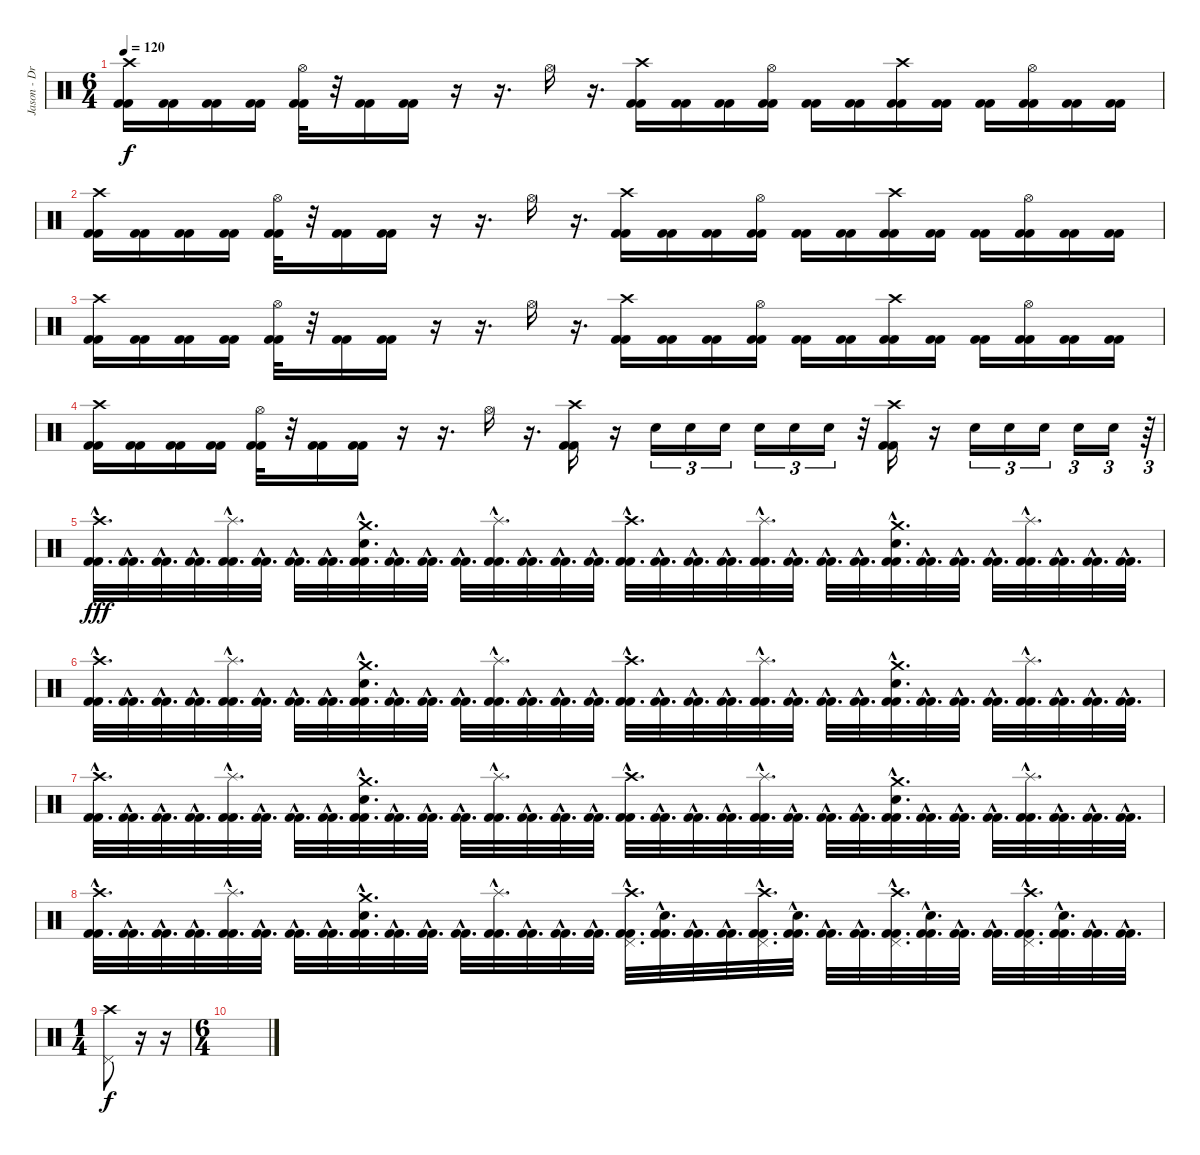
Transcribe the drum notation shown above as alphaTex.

\track ("Jason - Drums" "Jason - Dr") {instrument percussion}
\staff {score}
\articulation defaults
\ts (6 4)
\tempo 120
\clef neutral
\ks c
("Crash high (hit)" "Kick (hit) 2" "Kick (hit) 2").16{dy f} ("Kick (hit) 2" "Kick (hit) 2").16 ("Kick (hit) 2" "Kick (hit) 2").16 ("Kick (hit) 2" "Kick (hit) 2").16 ("Hi-Hat (open)" "Kick (hit) 2" "Kick (hit) 2").32 r.32 ("Kick (hit) 2" "Kick (hit) 2").16 ("Kick (hit) 2" "Kick (hit) 2").16 r.16 r.16{d} "Hi-Hat (open)".16 r.16{d} ("Crash high (hit)" "Kick (hit) 2" "Kick (hit) 2").16 ("Kick (hit) 2" "Kick (hit) 2").16 ("Kick (hit) 2" "Kick (hit) 2").16 ("Hi-Hat (open)" "Kick (hit) 2" "Kick (hit) 2").16 ("Kick (hit) 2" "Kick (hit) 2").16 ("Kick (hit) 2" "Kick (hit) 2").16 ("Crash high (hit)" "Kick (hit) 2" "Kick (hit) 2").16 ("Kick (hit) 2" "Kick (hit) 2").16 ("Kick (hit) 2" "Kick (hit) 2").16 ("Hi-Hat (open)" "Kick (hit) 2" "Kick (hit) 2").16 ("Kick (hit) 2" "Kick (hit) 2").16 ("Kick (hit) 2" "Kick (hit) 2").16 |
("Crash high (hit)" "Kick (hit) 2" "Kick (hit) 2").16 ("Kick (hit) 2" "Kick (hit) 2").16 ("Kick (hit) 2" "Kick (hit) 2").16 ("Kick (hit) 2" "Kick (hit) 2").16 ("Hi-Hat (open)" "Kick (hit) 2" "Kick (hit) 2").32 r.32 ("Kick (hit) 2" "Kick (hit) 2").16 ("Kick (hit) 2" "Kick (hit) 2").16 r.16 r.16{d} "Hi-Hat (open)".16 r.16{d} ("Crash high (hit)" "Kick (hit) 2" "Kick (hit) 2").16 ("Kick (hit) 2" "Kick (hit) 2").16 ("Kick (hit) 2" "Kick (hit) 2").16 ("Hi-Hat (open)" "Kick (hit) 2" "Kick (hit) 2").16 ("Kick (hit) 2" "Kick (hit) 2").16 ("Kick (hit) 2" "Kick (hit) 2").16 ("Crash high (hit)" "Kick (hit) 2" "Kick (hit) 2").16 ("Kick (hit) 2" "Kick (hit) 2").16 ("Kick (hit) 2" "Kick (hit) 2").16 ("Hi-Hat (open)" "Kick (hit) 2" "Kick (hit) 2").16 ("Kick (hit) 2" "Kick (hit) 2").16 ("Kick (hit) 2" "Kick (hit) 2").16 |
("Crash high (hit)" "Kick (hit) 2" "Kick (hit) 2").16 ("Kick (hit) 2" "Kick (hit) 2").16 ("Kick (hit) 2" "Kick (hit) 2").16 ("Kick (hit) 2" "Kick (hit) 2").16 ("Hi-Hat (open)" "Kick (hit) 2" "Kick (hit) 2").32 r.32 ("Kick (hit) 2" "Kick (hit) 2").16 ("Kick (hit) 2" "Kick (hit) 2").16 r.16 r.16{d} "Hi-Hat (open)".16 r.16{d} ("Crash high (hit)" "Kick (hit) 2" "Kick (hit) 2").16 ("Kick (hit) 2" "Kick (hit) 2").16 ("Kick (hit) 2" "Kick (hit) 2").16 ("Hi-Hat (open)" "Kick (hit) 2" "Kick (hit) 2").16 ("Kick (hit) 2" "Kick (hit) 2").16 ("Kick (hit) 2" "Kick (hit) 2").16 ("Crash high (hit)" "Kick (hit) 2" "Kick (hit) 2").16 ("Kick (hit) 2" "Kick (hit) 2").16 ("Kick (hit) 2" "Kick (hit) 2").16 ("Hi-Hat (open)" "Kick (hit) 2" "Kick (hit) 2").16 ("Kick (hit) 2" "Kick (hit) 2").16 ("Kick (hit) 2" "Kick (hit) 2").16 |
("Crash high (hit)" "Kick (hit) 2" "Kick (hit) 2").16 ("Kick (hit) 2" "Kick (hit) 2").16 ("Kick (hit) 2" "Kick (hit) 2").16 ("Kick (hit) 2" "Kick (hit) 2").16 ("Hi-Hat (open)" "Kick (hit) 2" "Kick (hit) 2").32 r.32 ("Kick (hit) 2" "Kick (hit) 2").16 ("Kick (hit) 2" "Kick (hit) 2").16 r.16 r.16{d} "Hi-Hat (open)".16 r.16{d} ("Crash high (hit)" "Kick (hit) 2" "Kick (hit) 2").16 r.16 "Electric Snare (hit)".16{tu (3 2)} "Electric Snare (hit)".16{tu (3 2)} "Electric Snare (hit)".16{tu (3 2)} "Electric Snare (hit)".16{tu (3 2)} "Electric Snare (hit)".16{tu (3 2)} "Electric Snare (hit)".16{tu (3 2)} r.32 ("Crash high (hit)" "Kick (hit) 2" "Kick (hit) 2").16 r.16 "Electric Snare (hit)".16{tu (3 2)} "Electric Snare (hit)".16{tu (3 2)} "Electric Snare (hit)".16{tu (3 2)} "Electric Snare (hit)".16{tu (3 2)} "Electric Snare (hit)".16{tu (3 2)} r.64{tu (3 2)} |
("Crash high (hit)"{hac} "Kick (hit) 2"{hac} "Kick (hit) 2"{hac}).32{d dy fff} ("Kick (hit) 2"{hac} "Kick (hit) 2"{hac}).32{d} ("Kick (hit) 2"{hac} "Kick (hit) 2"{hac}).32{d} ("Kick (hit) 2"{hac} "Kick (hit) 2"{hac}).32{d} ("Splash (hit)"{hac} "Kick (hit) 2"{hac} "Kick (hit) 2"{hac}).32{d} ("Kick (hit) 2"{hac} "Kick (hit) 2"{hac}).32{d} ("Kick (hit) 2"{hac} "Kick (hit) 2"{hac}).32{d} ("Kick (hit) 2"{hac} "Kick (hit) 2"{hac}).32{d} ("Crash medium (hit)"{hac} "Electric Snare (hit)"{hac} "Kick (hit) 2"{hac} "Kick (hit) 2"{hac}).32{d} ("Kick (hit) 2"{hac} "Kick (hit) 2"{hac}).32{d} ("Kick (hit) 2"{hac} "Kick (hit) 2"{hac}).32{d} ("Kick (hit) 2"{hac} "Kick (hit) 2"{hac}).32{d} ("Splash (hit)"{hac} "Kick (hit) 2"{hac} "Kick (hit) 2"{hac}).32{d} ("Kick (hit) 2"{hac} "Kick (hit) 2"{hac}).32{d} ("Kick (hit) 2"{hac} "Kick (hit) 2"{hac}).32{d} ("Kick (hit) 2"{hac} "Kick (hit) 2"{hac}).32{d} ("Crash high (hit)"{hac} "Kick (hit) 2"{hac} "Kick (hit) 2"{hac}).32{d} ("Kick (hit) 2"{hac} "Kick (hit) 2"{hac}).32{d} ("Kick (hit) 2"{hac} "Kick (hit) 2"{hac}).32{d} ("Kick (hit) 2"{hac} "Kick (hit) 2"{hac}).32{d} ("Splash (hit)"{hac} "Kick (hit) 2"{hac} "Kick (hit) 2"{hac}).32{d} ("Kick (hit) 2"{hac} "Kick (hit) 2"{hac}).32{d} ("Kick (hit) 2"{hac} "Kick (hit) 2"{hac}).32{d} ("Kick (hit) 2"{hac} "Kick (hit) 2"{hac}).32{d} ("Crash medium (hit)"{hac} "Electric Snare (hit)"{hac} "Kick (hit) 2"{hac} "Kick (hit) 2"{hac}).32{d} ("Kick (hit) 2"{hac} "Kick (hit) 2"{hac}).32{d} ("Kick (hit) 2"{hac} "Kick (hit) 2"{hac}).32{d} ("Kick (hit) 2"{hac} "Kick (hit) 2"{hac}).32{d} ("Splash (hit)"{hac} "Kick (hit) 2"{hac} "Kick (hit) 2"{hac}).32{d} ("Kick (hit) 2"{hac} "Kick (hit) 2"{hac}).32{d} ("Kick (hit) 2"{hac} "Kick (hit) 2"{hac}).32{d} ("Kick (hit) 2"{hac} "Kick (hit) 2"{hac}).32{d} |
("Crash high (hit)"{hac} "Kick (hit) 2"{hac} "Kick (hit) 2"{hac}).32{d} ("Kick (hit) 2"{hac} "Kick (hit) 2"{hac}).32{d} ("Kick (hit) 2"{hac} "Kick (hit) 2"{hac}).32{d} ("Kick (hit) 2"{hac} "Kick (hit) 2"{hac}).32{d} ("Splash (hit)"{hac} "Kick (hit) 2"{hac} "Kick (hit) 2"{hac}).32{d} ("Kick (hit) 2"{hac} "Kick (hit) 2"{hac}).32{d} ("Kick (hit) 2"{hac} "Kick (hit) 2"{hac}).32{d} ("Kick (hit) 2"{hac} "Kick (hit) 2"{hac}).32{d} ("Crash medium (hit)"{hac} "Electric Snare (hit)"{hac} "Kick (hit) 2"{hac} "Kick (hit) 2"{hac}).32{d} ("Kick (hit) 2"{hac} "Kick (hit) 2"{hac}).32{d} ("Kick (hit) 2"{hac} "Kick (hit) 2"{hac}).32{d} ("Kick (hit) 2"{hac} "Kick (hit) 2"{hac}).32{d} ("Splash (hit)"{hac} "Kick (hit) 2"{hac} "Kick (hit) 2"{hac}).32{d} ("Kick (hit) 2"{hac} "Kick (hit) 2"{hac}).32{d} ("Kick (hit) 2"{hac} "Kick (hit) 2"{hac}).32{d} ("Kick (hit) 2"{hac} "Kick (hit) 2"{hac}).32{d} ("Crash high (hit)"{hac} "Kick (hit) 2"{hac} "Kick (hit) 2"{hac}).32{d} ("Kick (hit) 2"{hac} "Kick (hit) 2"{hac}).32{d} ("Kick (hit) 2"{hac} "Kick (hit) 2"{hac}).32{d} ("Kick (hit) 2"{hac} "Kick (hit) 2"{hac}).32{d} ("Splash (hit)"{hac} "Kick (hit) 2"{hac} "Kick (hit) 2"{hac}).32{d} ("Kick (hit) 2"{hac} "Kick (hit) 2"{hac}).32{d} ("Kick (hit) 2"{hac} "Kick (hit) 2"{hac}).32{d} ("Kick (hit) 2"{hac} "Kick (hit) 2"{hac}).32{d} ("Crash medium (hit)"{hac} "Electric Snare (hit)"{hac} "Kick (hit) 2"{hac} "Kick (hit) 2"{hac}).32{d} ("Kick (hit) 2"{hac} "Kick (hit) 2"{hac}).32{d} ("Kick (hit) 2"{hac} "Kick (hit) 2"{hac}).32{d} ("Kick (hit) 2"{hac} "Kick (hit) 2"{hac}).32{d} ("Splash (hit)"{hac} "Kick (hit) 2"{hac} "Kick (hit) 2"{hac}).32{d} ("Kick (hit) 2"{hac} "Kick (hit) 2"{hac}).32{d} ("Kick (hit) 2"{hac} "Kick (hit) 2"{hac}).32{d} ("Kick (hit) 2"{hac} "Kick (hit) 2"{hac}).32{d} |
("Crash high (hit)"{hac} "Kick (hit) 2"{hac} "Kick (hit) 2"{hac}).32{d} ("Kick (hit) 2"{hac} "Kick (hit) 2"{hac}).32{d} ("Kick (hit) 2"{hac} "Kick (hit) 2"{hac}).32{d} ("Kick (hit) 2"{hac} "Kick (hit) 2"{hac}).32{d} ("Splash (hit)"{hac} "Kick (hit) 2"{hac} "Kick (hit) 2"{hac}).32{d} ("Kick (hit) 2"{hac} "Kick (hit) 2"{hac}).32{d} ("Kick (hit) 2"{hac} "Kick (hit) 2"{hac}).32{d} ("Kick (hit) 2"{hac} "Kick (hit) 2"{hac}).32{d} ("Crash medium (hit)"{hac} "Electric Snare (hit)"{hac} "Kick (hit) 2"{hac} "Kick (hit) 2"{hac}).32{d} ("Kick (hit) 2"{hac} "Kick (hit) 2"{hac}).32{d} ("Kick (hit) 2"{hac} "Kick (hit) 2"{hac}).32{d} ("Kick (hit) 2"{hac} "Kick (hit) 2"{hac}).32{d} ("Splash (hit)"{hac} "Kick (hit) 2"{hac} "Kick (hit) 2"{hac}).32{d} ("Kick (hit) 2"{hac} "Kick (hit) 2"{hac}).32{d} ("Kick (hit) 2"{hac} "Kick (hit) 2"{hac}).32{d} ("Kick (hit) 2"{hac} "Kick (hit) 2"{hac}).32{d} ("Crash high (hit)"{hac} "Kick (hit) 2"{hac} "Kick (hit) 2"{hac}).32{d} ("Kick (hit) 2"{hac} "Kick (hit) 2"{hac}).32{d} ("Kick (hit) 2"{hac} "Kick (hit) 2"{hac}).32{d} ("Kick (hit) 2"{hac} "Kick (hit) 2"{hac}).32{d} ("Splash (hit)"{hac} "Kick (hit) 2"{hac} "Kick (hit) 2"{hac}).32{d} ("Kick (hit) 2"{hac} "Kick (hit) 2"{hac}).32{d} ("Kick (hit) 2"{hac} "Kick (hit) 2"{hac}).32{d} ("Kick (hit) 2"{hac} "Kick (hit) 2"{hac}).32{d} ("Crash medium (hit)"{hac} "Electric Snare (hit)"{hac} "Kick (hit) 2"{hac} "Kick (hit) 2"{hac}).32{d} ("Kick (hit) 2"{hac} "Kick (hit) 2"{hac}).32{d} ("Kick (hit) 2"{hac} "Kick (hit) 2"{hac}).32{d} ("Kick (hit) 2"{hac} "Kick (hit) 2"{hac}).32{d} ("Splash (hit)"{hac} "Kick (hit) 2"{hac} "Kick (hit) 2"{hac}).32{d} ("Kick (hit) 2"{hac} "Kick (hit) 2"{hac}).32{d} ("Kick (hit) 2"{hac} "Kick (hit) 2"{hac}).32{d} ("Kick (hit) 2"{hac} "Kick (hit) 2"{hac}).32{d} |
("Crash high (hit)"{hac} "Kick (hit) 2"{hac} "Kick (hit) 2"{hac}).32{d} ("Kick (hit) 2"{hac} "Kick (hit) 2"{hac}).32{d} ("Kick (hit) 2"{hac} "Kick (hit) 2"{hac}).32{d} ("Kick (hit) 2"{hac} "Kick (hit) 2"{hac}).32{d} ("Splash (hit)"{hac} "Kick (hit) 2"{hac} "Kick (hit) 2"{hac}).32{d} ("Kick (hit) 2"{hac} "Kick (hit) 2"{hac}).32{d} ("Kick (hit) 2"{hac} "Kick (hit) 2"{hac}).32{d} ("Kick (hit) 2"{hac} "Kick (hit) 2"{hac}).32{d} ("Crash medium (hit)"{hac} "Electric Snare (hit)"{hac} "Kick (hit) 2"{hac} "Kick (hit) 2"{hac}).32{d} ("Kick (hit) 2"{hac} "Kick (hit) 2"{hac}).32{d} ("Kick (hit) 2"{hac} "Kick (hit) 2"{hac}).32{d} ("Kick (hit) 2"{hac} "Kick (hit) 2"{hac}).32{d} ("Splash (hit)"{hac} "Kick (hit) 2"{hac} "Kick (hit) 2"{hac}).32{d} ("Kick (hit) 2"{hac} "Kick (hit) 2"{hac}).32{d} ("Kick (hit) 2"{hac} "Kick (hit) 2"{hac}).32{d} ("Kick (hit) 2"{hac} "Kick (hit) 2"{hac}).32{d} ("Pedal Hi-Hat (hit)"{hac} "Crash high (hit)"{hac} "Kick (hit) 2"{hac} "Kick (hit) 2"{hac}).32{d} ("Snare (hit)"{hac x} "Kick (hit) 2"{hac} "Kick (hit) 2"{hac}).32{d} ("Kick (hit) 2"{hac} "Kick (hit) 2"{hac}).32{d} ("Kick (hit) 2"{hac} "Kick (hit) 2"{hac}).32{d} ("Pedal Hi-Hat (hit)"{hac} "Crash high (hit)"{hac} "Kick (hit) 2"{hac} "Kick (hit) 2"{hac}).32{d} ("Snare (hit)"{hac x} "Kick (hit) 2"{hac} "Kick (hit) 2"{hac}).32{d} ("Kick (hit) 2"{hac} "Kick (hit) 2"{hac}).32{d} ("Kick (hit) 2"{hac} "Kick (hit) 2"{hac}).32{d} ("Pedal Hi-Hat (hit)"{hac} "Crash high (hit)"{hac} "Kick (hit) 2"{hac} "Kick (hit) 2"{hac}).32{d} ("Snare (hit)"{hac x} "Kick (hit) 2"{hac} "Kick (hit) 2"{hac}).32{d} ("Kick (hit) 2"{hac} "Kick (hit) 2"{hac}).32{d} ("Kick (hit) 2"{hac} "Kick (hit) 2"{hac}).32{d} ("Pedal Hi-Hat (hit)"{hac} "Crash high (hit)"{hac} "Kick (hit) 2"{hac} "Kick (hit) 2"{hac}).32{d} ("Snare (hit)"{hac x} "Kick (hit) 2"{hac} "Kick (hit) 2"{hac}).32{d} ("Kick (hit) 2"{hac} "Kick (hit) 2"{hac}).32{d} ("Kick (hit) 2"{hac} "Kick (hit) 2"{hac}).32{d} |
\ts (1 4)
("Pedal Hi-Hat (hit)" "Crash high (hit)").8{dy f} r.16 r.16 |
\ts (6 4)
